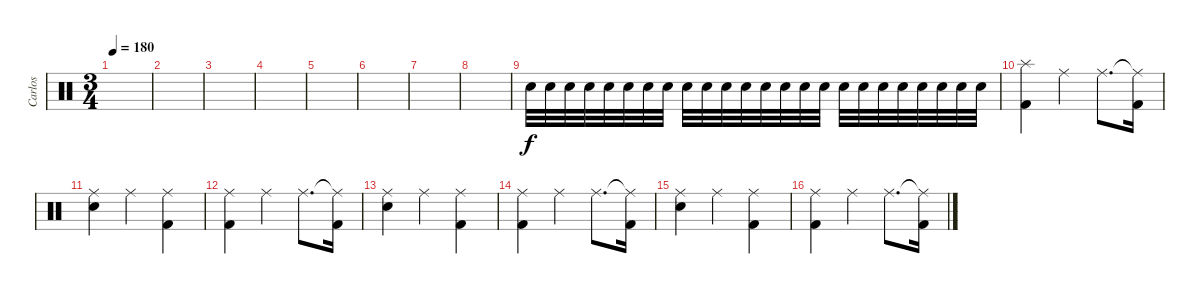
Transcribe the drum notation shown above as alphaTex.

\track ("Carlos" "Carlos") {instrument percussion}
\staff {score}
\articulation defaults
\ts (3 4)
\tempo 180
\clef neutral
\ks c
|
|
|
|
|
|
|
|
"Snare (hit) 2".32 "Snare (hit) 2".32 "Snare (hit) 2".32 "Snare (hit) 2".32 "Snare (hit) 2".32 "Snare (hit) 2".32 "Snare (hit) 2".32 "Snare (hit) 2".32 "Snare (hit) 2".32 "Snare (hit) 2".32 "Snare (hit) 2".32 "Snare (hit) 2".32 "Snare (hit) 2".32 "Snare (hit) 2".32 "Snare (hit) 2".32 "Snare (hit) 2".32 "Snare (hit) 2".32 "Snare (hit) 2".32 "Snare (hit) 2".32 "Snare (hit) 2".32 "Snare (hit) 2".32 "Snare (hit) 2".32 "Snare (hit) 2".32 "Snare (hit) 2".32 |
("Splash (hit)" "Kick (hit) 2").4 "Ride (middle)".4 "Ride (middle)".8{d} ("Ride (middle)"{t} "Kick (hit) 2").16 |
("Ride (middle)" "Snare (hit) 2").4 "Ride (middle)".4 ("Ride (middle)" "Kick (hit) 2").4 |
("Ride (middle)" "Kick (hit) 2").4 "Ride (middle)".4 "Ride (middle)".8{d} ("Ride (middle)"{t} "Kick (hit) 2").16 |
("Ride (middle)" "Snare (hit) 2").4 "Ride (middle)".4 ("Ride (middle)" "Kick (hit) 2").4 |
("Ride (middle)" "Kick (hit) 2").4 "Ride (middle)".4 "Ride (middle)".8{d} ("Ride (middle)"{t} "Kick (hit) 2").16 |
("Ride (middle)" "Snare (hit) 2").4 "Ride (middle)".4 ("Ride (middle)" "Kick (hit) 2").4 |
("Ride (middle)" "Kick (hit) 2").4 "Ride (middle)".4 "Ride (middle)".8{d} ("Ride (middle)"{t} "Kick (hit) 2").16
